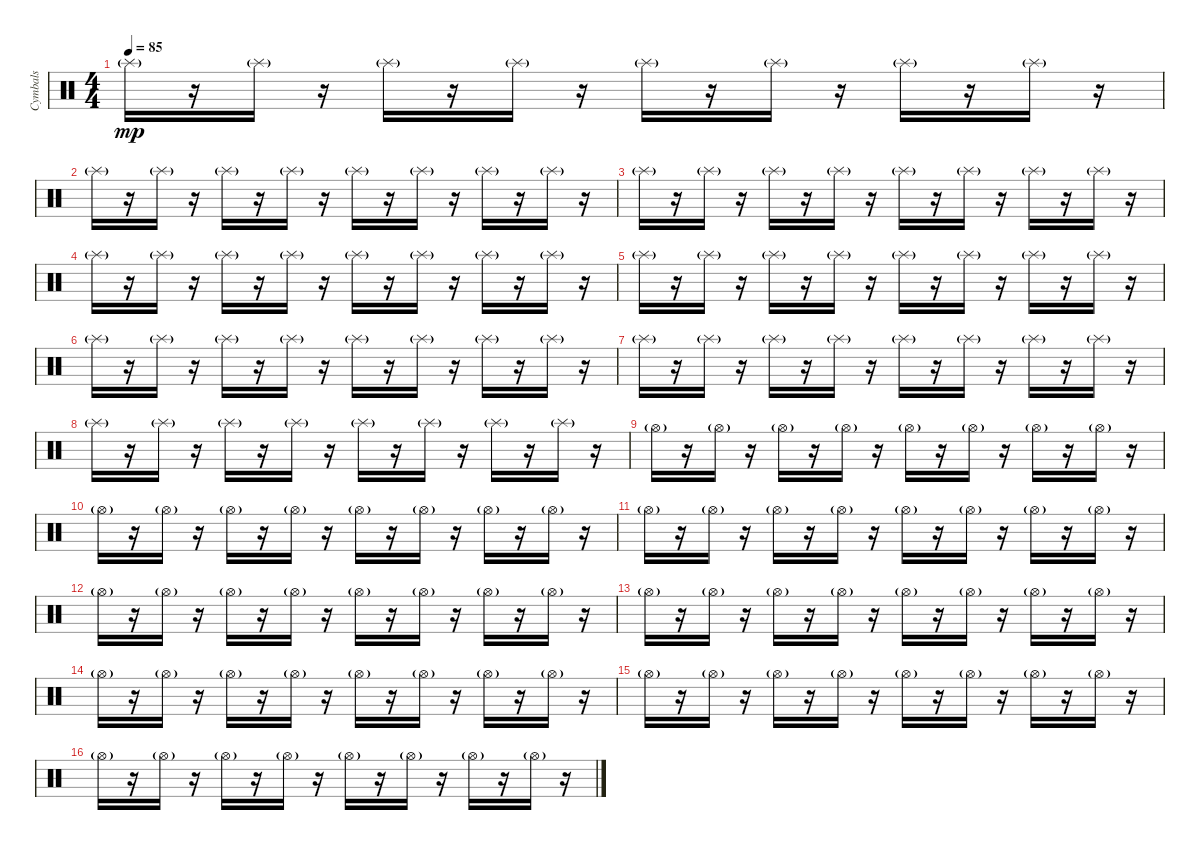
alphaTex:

\track ("Cymbals" "Cymbals") {instrument percussion}
\staff {score}
\articulation defaults
\ts (4 4)
\tempo 85
\clef neutral
\ks c "Splash (hit)"{g}.16{dy mp}
r.16 "Splash (hit)"{g}.16 r.16 "Splash (hit)"{g}.16 r.16 "Splash (hit)"{g}.16 r.16 "Splash (hit)"{g}.16 r.16 "Splash (hit)"{g}.16 r.16 "Splash (hit)"{g}.16 r.16 "Splash (hit)"{g}.16 r.16 |
"Splash (hit)"{g}.16 r.16 "Splash (hit)"{g}.16 r.16 "Splash (hit)"{g}.16 r.16 "Splash (hit)"{g}.16 r.16 "Splash (hit)"{g}.16 r.16 "Splash (hit)"{g}.16 r.16 "Splash (hit)"{g}.16 r.16 "Splash (hit)"{g}.16 r.16 |
"Splash (hit)"{g}.16 r.16 "Splash (hit)"{g}.16 r.16 "Splash (hit)"{g}.16 r.16 "Splash (hit)"{g}.16 r.16 "Splash (hit)"{g}.16 r.16 "Splash (hit)"{g}.16 r.16 "Splash (hit)"{g}.16 r.16 "Splash (hit)"{g}.16 r.16 |
"Splash (hit)"{g}.16 r.16 "Splash (hit)"{g}.16 r.16 "Splash (hit)"{g}.16 r.16 "Splash (hit)"{g}.16 r.16 "Splash (hit)"{g}.16 r.16 "Splash (hit)"{g}.16 r.16 "Splash (hit)"{g}.16 r.16 "Splash (hit)"{g}.16 r.16 |
"Splash (hit)"{g}.16 r.16 "Splash (hit)"{g}.16 r.16 "Splash (hit)"{g}.16 r.16 "Splash (hit)"{g}.16 r.16 "Splash (hit)"{g}.16 r.16 "Splash (hit)"{g}.16 r.16 "Splash (hit)"{g}.16 r.16 "Splash (hit)"{g}.16 r.16 |
"Splash (hit)"{g}.16 r.16 "Splash (hit)"{g}.16 r.16 "Splash (hit)"{g}.16 r.16 "Splash (hit)"{g}.16 r.16 "Splash (hit)"{g}.16 r.16 "Splash (hit)"{g}.16 r.16 "Splash (hit)"{g}.16 r.16 "Splash (hit)"{g}.16 r.16 |
"Splash (hit)"{g}.16 r.16 "Splash (hit)"{g}.16 r.16 "Splash (hit)"{g}.16 r.16 "Splash (hit)"{g}.16 r.16 "Splash (hit)"{g}.16 r.16 "Splash (hit)"{g}.16 r.16 "Splash (hit)"{g}.16 r.16 "Splash (hit)"{g}.16 r.16 |
"Splash (hit)"{g}.16 r.16 "Splash (hit)"{g}.16 r.16 "Splash (hit)"{g}.16 r.16 "Splash (hit)"{g}.16 r.16 "Splash (hit)"{g}.16 r.16 "Splash (hit)"{g}.16 r.16 "Splash (hit)"{g}.16 r.16 "Splash (hit)"{g}.16 r.16 |
"Hi-Hat (open)"{g}.16 r.16 "Hi-Hat (open)"{g}.16 r.16 "Hi-Hat (open)"{g}.16 r.16 "Hi-Hat (open)"{g}.16 r.16 "Hi-Hat (open)"{g}.16 r.16 "Hi-Hat (open)"{g}.16 r.16 "Hi-Hat (open)"{g}.16 r.16 "Hi-Hat (open)"{g}.16 r.16 |
"Hi-Hat (open)"{g}.16 r.16 "Hi-Hat (open)"{g}.16 r.16 "Hi-Hat (open)"{g}.16 r.16 "Hi-Hat (open)"{g}.16 r.16 "Hi-Hat (open)"{g}.16 r.16 "Hi-Hat (open)"{g}.16 r.16 "Hi-Hat (open)"{g}.16 r.16 "Hi-Hat (open)"{g}.16 r.16 |
"Hi-Hat (open)"{g}.16 r.16 "Hi-Hat (open)"{g}.16 r.16 "Hi-Hat (open)"{g}.16 r.16 "Hi-Hat (open)"{g}.16 r.16 "Hi-Hat (open)"{g}.16 r.16 "Hi-Hat (open)"{g}.16 r.16 "Hi-Hat (open)"{g}.16 r.16 "Hi-Hat (open)"{g}.16 r.16 |
"Hi-Hat (open)"{g}.16 r.16 "Hi-Hat (open)"{g}.16 r.16 "Hi-Hat (open)"{g}.16 r.16 "Hi-Hat (open)"{g}.16 r.16 "Hi-Hat (open)"{g}.16 r.16 "Hi-Hat (open)"{g}.16 r.16 "Hi-Hat (open)"{g}.16 r.16 "Hi-Hat (open)"{g}.16 r.16 |
"Hi-Hat (open)"{g}.16 r.16 "Hi-Hat (open)"{g}.16 r.16 "Hi-Hat (open)"{g}.16 r.16 "Hi-Hat (open)"{g}.16 r.16 "Hi-Hat (open)"{g}.16 r.16 "Hi-Hat (open)"{g}.16 r.16 "Hi-Hat (open)"{g}.16 r.16 "Hi-Hat (open)"{g}.16 r.16 |
"Hi-Hat (open)"{g}.16 r.16 "Hi-Hat (open)"{g}.16 r.16 "Hi-Hat (open)"{g}.16 r.16 "Hi-Hat (open)"{g}.16 r.16 "Hi-Hat (open)"{g}.16 r.16 "Hi-Hat (open)"{g}.16 r.16 "Hi-Hat (open)"{g}.16 r.16 "Hi-Hat (open)"{g}.16 r.16 |
"Hi-Hat (open)"{g}.16 r.16 "Hi-Hat (open)"{g}.16 r.16 "Hi-Hat (open)"{g}.16 r.16 "Hi-Hat (open)"{g}.16 r.16 "Hi-Hat (open)"{g}.16 r.16 "Hi-Hat (open)"{g}.16 r.16 "Hi-Hat (open)"{g}.16 r.16 "Hi-Hat (open)"{g}.16 r.16 |
"Hi-Hat (open)"{g}.16 r.16 "Hi-Hat (open)"{g}.16 r.16 "Hi-Hat (open)"{g}.16 r.16 "Hi-Hat (open)"{g}.16 r.16 "Hi-Hat (open)"{g}.16 r.16 "Hi-Hat (open)"{g}.16 r.16 "Hi-Hat (open)"{g}.16 r.16 "Hi-Hat (open)"{g}.16 r.16
